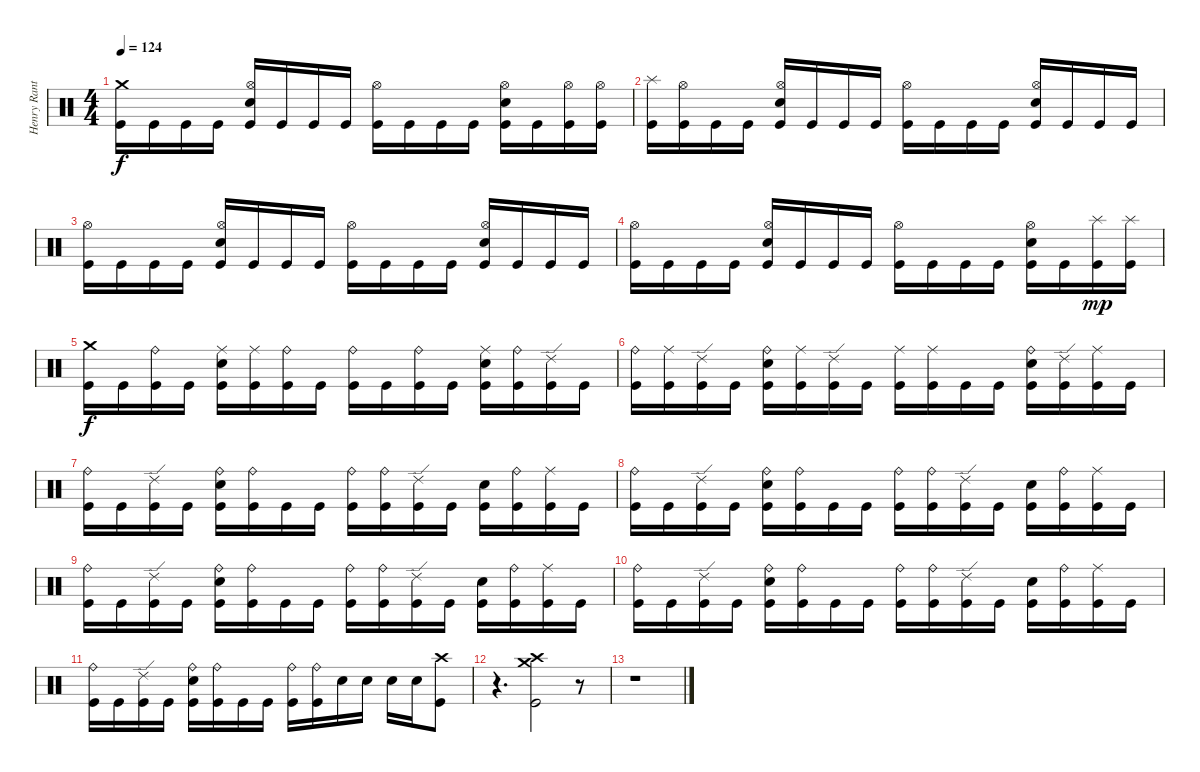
\track ("Henry Ranta" "Henry Rant") {instrument percussion}
\staff {score}
\articulation defaults
\ts (4 4)
\tempo 124
\clef neutral
\ks c
("Crash medium (hit)" "Kick (hit)").16{dy f} "Kick (hit)".16 "Kick (hit)".16 "Kick (hit)".16 ("Hi-Hat (open)" "Electric Snare (hit)" "Kick (hit)").16 "Kick (hit)".16 "Kick (hit)".16 "Kick (hit)".16 ("Hi-Hat (open)" "Kick (hit)").16 "Kick (hit)".16 "Kick (hit)".16 "Kick (hit)".16 ("Hi-Hat (open)" "Electric Snare (hit)" "Kick (hit)").16 "Kick (hit)".16 ("Hi-Hat (open)" "Kick (hit)").16 ("Hi-Hat (open)" "Kick (hit)").16 |
("Splash (hit)" "Kick (hit)").16 ("Hi-Hat (open)" "Kick (hit)").16 "Kick (hit)".16 "Kick (hit)".16 ("Hi-Hat (open)" "Electric Snare (hit)" "Kick (hit)").16 "Kick (hit)".16 "Kick (hit)".16 "Kick (hit)".16 ("Hi-Hat (open)" "Kick (hit)").16 "Kick (hit)".16 "Kick (hit)".16 "Kick (hit)".16 ("Hi-Hat (open)" "Electric Snare (hit)" "Kick (hit)").16 "Kick (hit)".16 "Kick (hit)".16 "Kick (hit)".16 |
("Hi-Hat (open)" "Kick (hit)").16 "Kick (hit)".16 "Kick (hit)".16 "Kick (hit)".16 ("Hi-Hat (open)" "Electric Snare (hit)" "Kick (hit)").16 "Kick (hit)".16 "Kick (hit)".16 "Kick (hit)".16 ("Hi-Hat (open)" "Kick (hit)").16 "Kick (hit)".16 "Kick (hit)".16 "Kick (hit)".16 ("Hi-Hat (open)" "Electric Snare (hit)" "Kick (hit)").16 "Kick (hit)".16 "Kick (hit)".16 "Kick (hit)".16 |
("Hi-Hat (open)" "Kick (hit)").16 "Kick (hit)".16 "Kick (hit)".16 "Kick (hit)".16 ("Hi-Hat (open)" "Electric Snare (hit)" "Kick (hit)").16 "Kick (hit)".16 "Kick (hit)".16 "Kick (hit)".16 ("Hi-Hat (open)" "Kick (hit)").16 "Kick (hit)".16 "Kick (hit)".16 "Kick (hit)".16 ("Hi-Hat (open)" "Electric Snare (hit)" "Kick (hit)").16 "Kick (hit)".16 ("Splash (hit)" "Kick (hit)").16{dy mp} ("Splash (hit)" "Kick (hit)").16 |
("Crash medium (hit)" "Kick (hit)").16{dy f} "Kick (hit)".16 ("Ride (bell)" "Kick (hit)").16 "Kick (hit)".16 ("Ride (middle)" "Electric Snare (hit)" "Kick (hit)").16 ("Ride (middle)" "Kick (hit)").16 ("Ride (bell)" "Kick (hit)").16 "Kick (hit)".16 ("Ride (bell)" "Kick (hit)").16 "Kick (hit)".16 ("Ride (bell)" "Kick (hit)").16 "Kick (hit)".16 ("Ride (middle)" "Electric Snare (hit)" "Kick (hit)").16 ("Ride (bell)" "Kick (hit)").16 ("Ride (edge) 2" "Kick (hit)").16 "Kick (hit)".16 |
("Ride (bell)" "Kick (hit)").16 ("Ride (middle)" "Kick (hit)").16 ("Ride (edge) 2" "Kick (hit)").16 "Kick (hit)".16 ("Ride (bell)" "Electric Snare (hit)" "Kick (hit)").16 ("Ride (middle)" "Kick (hit)").16 ("Ride (edge) 2" "Kick (hit)").16 "Kick (hit)".16 ("Ride (middle)" "Kick (hit)").16 ("Ride (middle)" "Kick (hit)").16 "Kick (hit)".16 "Kick (hit)".16 ("Ride (bell)" "Electric Snare (hit)" "Kick (hit)").16 ("Ride (edge) 2" "Kick (hit)").16 ("Ride (middle)" "Kick (hit)").16 "Kick (hit)".16 |
("Ride (bell)" "Kick (hit)").16 "Kick (hit)".16 ("Ride (edge) 2" "Kick (hit)").16 "Kick (hit)".16 ("Ride (bell)" "Electric Snare (hit)" "Kick (hit)").16 ("Ride (bell)" "Kick (hit)").16 "Kick (hit)".16 "Kick (hit)".16 ("Ride (bell)" "Kick (hit)").16 ("Ride (bell)" "Kick (hit)").16 ("Ride (edge) 2" "Kick (hit)").16 "Kick (hit)".16 ("Electric Snare (hit)" "Kick (hit)").16 ("Ride (bell)" "Kick (hit)").16 ("Ride (middle)" "Kick (hit)").16 "Kick (hit)".16 |
("Ride (bell)" "Kick (hit)").16 "Kick (hit)".16 ("Ride (edge) 2" "Kick (hit)").16 "Kick (hit)".16 ("Ride (bell)" "Electric Snare (hit)" "Kick (hit)").16 ("Ride (bell)" "Kick (hit)").16 "Kick (hit)".16 "Kick (hit)".16 ("Ride (bell)" "Kick (hit)").16 ("Ride (bell)" "Kick (hit)").16 ("Ride (edge) 2" "Kick (hit)").16 "Kick (hit)".16 ("Electric Snare (hit)" "Kick (hit)").16 ("Ride (bell)" "Kick (hit)").16 ("Ride (middle)" "Kick (hit)").16 "Kick (hit)".16 |
("Ride (bell)" "Kick (hit)").16 "Kick (hit)".16 ("Ride (edge) 2" "Kick (hit)").16 "Kick (hit)".16 ("Ride (bell)" "Electric Snare (hit)" "Kick (hit)").16 ("Ride (bell)" "Kick (hit)").16 "Kick (hit)".16 "Kick (hit)".16 ("Ride (bell)" "Kick (hit)").16 ("Ride (bell)" "Kick (hit)").16 ("Ride (edge) 2" "Kick (hit)").16 "Kick (hit)".16 ("Electric Snare (hit)" "Kick (hit)").16 ("Ride (bell)" "Kick (hit)").16 ("Ride (middle)" "Kick (hit)").16 "Kick (hit)".16 |
("Ride (bell)" "Kick (hit)").16 "Kick (hit)".16 ("Ride (edge) 2" "Kick (hit)").16 "Kick (hit)".16 ("Ride (bell)" "Electric Snare (hit)" "Kick (hit)").16 ("Ride (bell)" "Kick (hit)").16 "Kick (hit)".16 "Kick (hit)".16 ("Ride (bell)" "Kick (hit)").16 ("Ride (bell)" "Kick (hit)").16 ("Ride (edge) 2" "Kick (hit)").16 "Kick (hit)".16 ("Electric Snare (hit)" "Kick (hit)").16 ("Ride (bell)" "Kick (hit)").16 ("Ride (middle)" "Kick (hit)").16 "Kick (hit)".16 |
("Ride (bell)" "Kick (hit)").16 "Kick (hit)".16 ("Ride (edge) 2" "Kick (hit)").16 "Kick (hit)".16 ("Ride (bell)" "Electric Snare (hit)" "Kick (hit)").16 ("Ride (bell)" "Kick (hit)").16 "Kick (hit)".16 "Kick (hit)".16 ("Ride (bell)" "Kick (hit)").16 ("Ride (bell)" "Kick (hit)").16 "Electric Snare (hit)".16 "Electric Snare (hit)".16 "Electric Snare (hit)".16 "Electric Snare (hit)".16 ("Crash high (hit)" "Kick (hit)").8 |
r.4{d} ("Crash high (hit)" "Crash medium (hit)" "Kick (hit)").2 r.8 |
r.1
